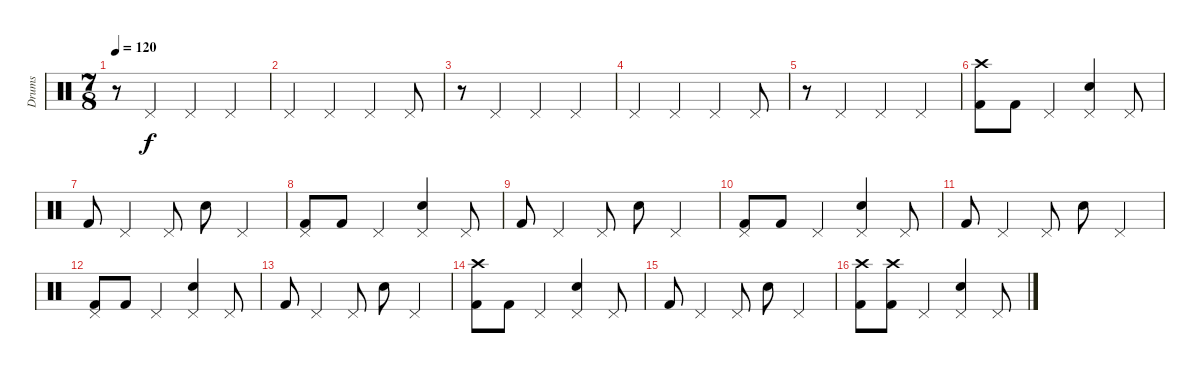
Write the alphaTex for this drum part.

\track ("Drums" "Drums") {instrument percussion}
\staff {score}
\articulation defaults
\ts (7 8)
\tempo 120
\clef neutral
\ks c
r.8{dy f} "Pedal Hi-Hat (hit)".4 "Pedal Hi-Hat (hit)".4 "Pedal Hi-Hat (hit)".4 |
"Pedal Hi-Hat (hit)".4 "Pedal Hi-Hat (hit)".4 "Pedal Hi-Hat (hit)".4 "Pedal Hi-Hat (hit)".8 |
r.8 "Pedal Hi-Hat (hit)".4 "Pedal Hi-Hat (hit)".4 "Pedal Hi-Hat (hit)".4 |
"Pedal Hi-Hat (hit)".4 "Pedal Hi-Hat (hit)".4 "Pedal Hi-Hat (hit)".4 "Pedal Hi-Hat (hit)".8 |
r.8 "Pedal Hi-Hat (hit)".4 "Pedal Hi-Hat (hit)".4 "Pedal Hi-Hat (hit)".4 |
("Crash high (hit)" "Kick (hit) 2").8 "Kick (hit) 2".8 "Pedal Hi-Hat (hit)".4 ("Pedal Hi-Hat (hit)" "Electric Snare (hit)").4 "Pedal Hi-Hat (hit)".8 |
"Kick (hit) 2".8 "Pedal Hi-Hat (hit)".4 "Pedal Hi-Hat (hit)".8 "Electric Snare (hit)".8 "Pedal Hi-Hat (hit)".4 |
("Pedal Hi-Hat (hit)" "Kick (hit) 2").8 "Kick (hit) 2".8 "Pedal Hi-Hat (hit)".4 ("Pedal Hi-Hat (hit)" "Electric Snare (hit)").4 "Pedal Hi-Hat (hit)".8 |
"Kick (hit) 2".8 "Pedal Hi-Hat (hit)".4 "Pedal Hi-Hat (hit)".8 "Electric Snare (hit)".8 "Pedal Hi-Hat (hit)".4 |
("Pedal Hi-Hat (hit)" "Kick (hit) 2").8 "Kick (hit) 2".8 "Pedal Hi-Hat (hit)".4 ("Pedal Hi-Hat (hit)" "Electric Snare (hit)").4 "Pedal Hi-Hat (hit)".8 |
"Kick (hit) 2".8 "Pedal Hi-Hat (hit)".4 "Pedal Hi-Hat (hit)".8 "Electric Snare (hit)".8 "Pedal Hi-Hat (hit)".4 |
("Pedal Hi-Hat (hit)" "Kick (hit) 2").8 "Kick (hit) 2".8 "Pedal Hi-Hat (hit)".4 ("Pedal Hi-Hat (hit)" "Electric Snare (hit)").4 "Pedal Hi-Hat (hit)".8 |
"Kick (hit) 2".8 "Pedal Hi-Hat (hit)".4 "Pedal Hi-Hat (hit)".8 "Electric Snare (hit)".8 "Pedal Hi-Hat (hit)".4 |
("Crash high (hit)" "Kick (hit) 2").8 "Kick (hit) 2".8 "Pedal Hi-Hat (hit)".4 ("Pedal Hi-Hat (hit)" "Electric Snare (hit)").4 "Pedal Hi-Hat (hit)".8 |
"Kick (hit) 2".8 "Pedal Hi-Hat (hit)".4 "Pedal Hi-Hat (hit)".8 "Electric Snare (hit)".8 "Pedal Hi-Hat (hit)".4 |
("Crash high (hit)" "Kick (hit) 2").8 ("Crash high (hit)" "Kick (hit) 2").8 "Pedal Hi-Hat (hit)".4 ("Pedal Hi-Hat (hit)" "Electric Snare (hit)").4 "Pedal Hi-Hat (hit)".8
